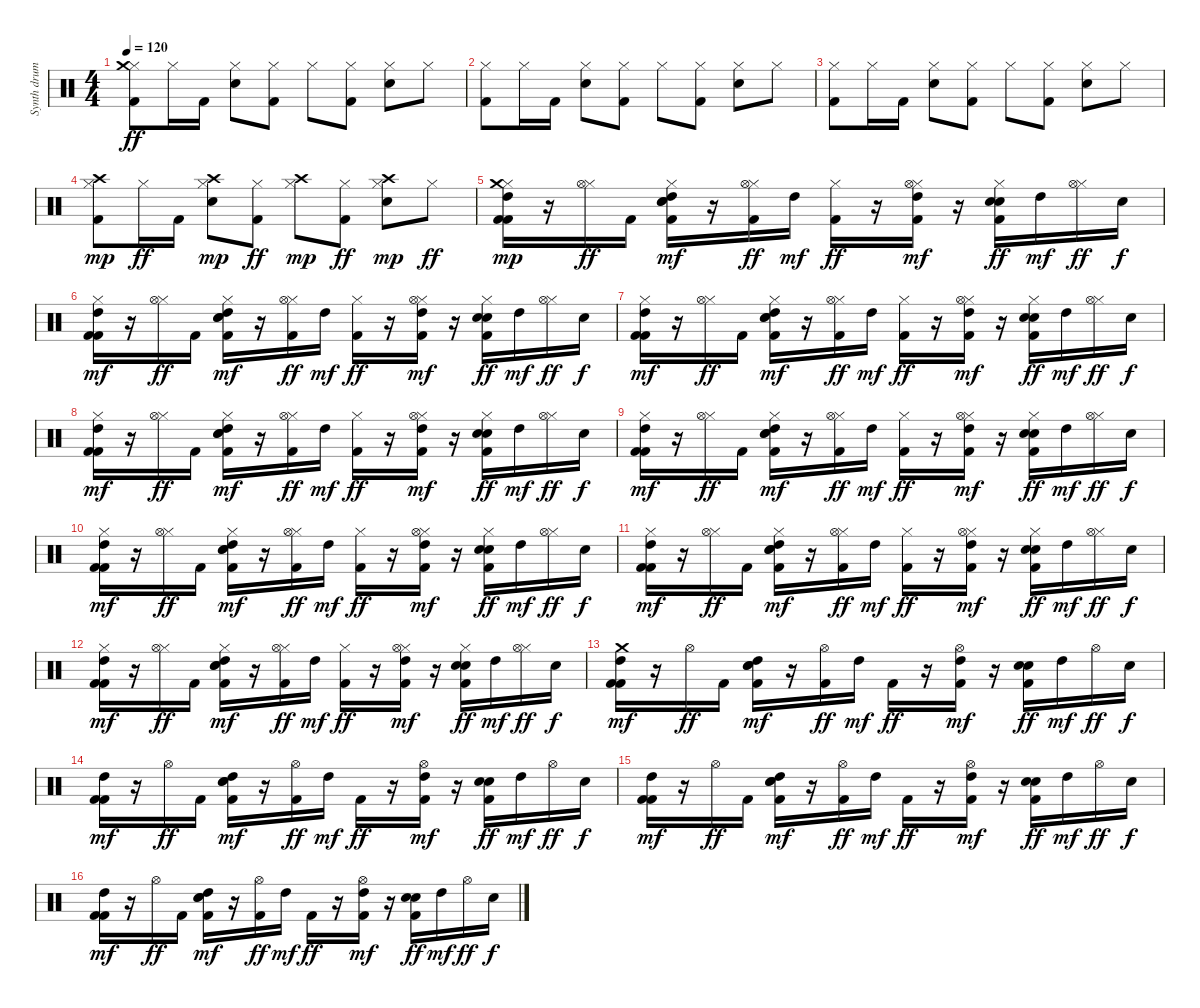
\track ("Synth drums" "Synth drum") {instrument percussion}
\staff {score}
\articulation defaults
\ts (4 4)
\tempo 120
\clef neutral
\ks c
("Kick (hit) 2" "Hi-Hat (closed)" "Crash medium (hit)").8{dy ff} "Hi-Hat (closed)".16 "Kick (hit) 2".16 ("Snare (hit) 2" "Hi-Hat (closed)").8 ("Kick (hit) 2" "Hi-Hat (closed)").8 "Hi-Hat (closed)".8 ("Kick (hit) 2" "Hi-Hat (closed)").8 ("Snare (hit) 2" "Hi-Hat (closed)").8 "Hi-Hat (closed)".8 |
("Kick (hit) 2" "Hi-Hat (closed)").8 "Hi-Hat (closed)".16 "Kick (hit) 2".16 ("Snare (hit) 2" "Hi-Hat (closed)").8 ("Kick (hit) 2" "Hi-Hat (closed)").8 "Hi-Hat (closed)".8 ("Kick (hit) 2" "Hi-Hat (closed)").8 ("Snare (hit) 2" "Hi-Hat (closed)").8 "Hi-Hat (closed)".8 |
("Kick (hit) 2" "Hi-Hat (closed)").8 "Hi-Hat (closed)".16 "Kick (hit) 2".16 ("Snare (hit) 2" "Hi-Hat (closed)").8 ("Kick (hit) 2" "Hi-Hat (closed)").8 "Hi-Hat (closed)".8 ("Kick (hit) 2" "Hi-Hat (closed)").8 ("Snare (hit) 2" "Hi-Hat (closed)").8 "Hi-Hat (closed)".8 |
("Kick (hit) 2" "Hi-Hat (closed)" "Crash high (hit)").8{dy mp} "Hi-Hat (closed)".16{dy ff} "Kick (hit) 2".16 ("Snare (hit) 2" "Hi-Hat (closed)" "Crash high (hit)").8{dy mp} ("Kick (hit) 2" "Hi-Hat (closed)").8{dy ff} ("Hi-Hat (closed)" "Crash high (hit)").8{dy mp} ("Kick (hit) 2" "Hi-Hat (closed)").8{dy ff} ("Snare (hit) 2" "Hi-Hat (closed)" "Crash high (hit)").8{dy mp} "Hi-Hat (closed)".8{dy ff} |
("Kick (hit) 2" "Hi-Hat (closed)" "Kick (hit) 2" "High Tom (hit)" "Crash medium (hit)").16{dy mp} r.16 ("Hi-Hat (closed)" "Hi-Hat (open)").16{dy ff} "Kick (hit) 2".16 ("Snare (hit) 2" "Hi-Hat (closed)" "Kick (hit) 2" "Snare (hit) 2" "High Tom (hit)").16{dy mf} r.16 ("Kick (hit) 2" "Hi-Hat (closed)" "Hi-Hat (open)").16{dy ff} "High Tom (hit)".16{dy mf} ("Hi-Hat (closed)" "Kick (hit) 2").16{dy ff} r.16 ("Kick (hit) 2" "Hi-Hat (closed)" "Hi-Hat (open)" "High Tom (hit)").16{dy mf} r.16 ("Snare (hit) 2" "Hi-Hat (closed)" "Kick (hit) 2" "Snare (hit) 2").16{dy ff} "High Tom (hit)".16{dy mf} ("Hi-Hat (closed)" "Hi-Hat (open)").16{dy ff} "Snare (hit) 2".16{dy f} |
("Kick (hit) 2" "Hi-Hat (closed)" "Kick (hit) 2" "High Tom (hit)").16{dy mf} r.16 ("Hi-Hat (closed)" "Hi-Hat (open)").16{dy ff} "Kick (hit) 2".16 ("Snare (hit) 2" "Hi-Hat (closed)" "Kick (hit) 2" "Snare (hit) 2" "High Tom (hit)").16{dy mf} r.16 ("Kick (hit) 2" "Hi-Hat (closed)" "Hi-Hat (open)").16{dy ff} "High Tom (hit)".16{dy mf} ("Hi-Hat (closed)" "Kick (hit) 2").16{dy ff} r.16 ("Kick (hit) 2" "Hi-Hat (closed)" "Hi-Hat (open)" "High Tom (hit)").16{dy mf} r.16 ("Snare (hit) 2" "Hi-Hat (closed)" "Kick (hit) 2" "Snare (hit) 2").16{dy ff} "High Tom (hit)".16{dy mf} ("Hi-Hat (closed)" "Hi-Hat (open)").16{dy ff} "Snare (hit) 2".16{dy f} |
("Kick (hit) 2" "Hi-Hat (closed)" "Kick (hit) 2" "High Tom (hit)").16{dy mf} r.16 ("Hi-Hat (closed)" "Hi-Hat (open)").16{dy ff} "Kick (hit) 2".16 ("Snare (hit) 2" "Hi-Hat (closed)" "Kick (hit) 2" "Snare (hit) 2" "High Tom (hit)").16{dy mf} r.16 ("Kick (hit) 2" "Hi-Hat (closed)" "Hi-Hat (open)").16{dy ff} "High Tom (hit)".16{dy mf} ("Hi-Hat (closed)" "Kick (hit) 2").16{dy ff} r.16 ("Kick (hit) 2" "Hi-Hat (closed)" "Hi-Hat (open)" "High Tom (hit)").16{dy mf} r.16 ("Snare (hit) 2" "Hi-Hat (closed)" "Kick (hit) 2" "Snare (hit) 2").16{dy ff} "High Tom (hit)".16{dy mf} ("Hi-Hat (closed)" "Hi-Hat (open)").16{dy ff} "Snare (hit) 2".16{dy f} |
("Kick (hit) 2" "Hi-Hat (closed)" "Kick (hit) 2" "High Tom (hit)").16{dy mf} r.16 ("Hi-Hat (closed)" "Hi-Hat (open)").16{dy ff} "Kick (hit) 2".16 ("Snare (hit) 2" "Hi-Hat (closed)" "Kick (hit) 2" "Snare (hit) 2" "High Tom (hit)").16{dy mf} r.16 ("Kick (hit) 2" "Hi-Hat (closed)" "Hi-Hat (open)").16{dy ff} "High Tom (hit)".16{dy mf} ("Hi-Hat (closed)" "Kick (hit) 2").16{dy ff} r.16 ("Kick (hit) 2" "Hi-Hat (closed)" "Hi-Hat (open)" "High Tom (hit)").16{dy mf} r.16 ("Snare (hit) 2" "Hi-Hat (closed)" "Kick (hit) 2" "Snare (hit) 2").16{dy ff} "High Tom (hit)".16{dy mf} ("Hi-Hat (closed)" "Hi-Hat (open)").16{dy ff} "Snare (hit) 2".16{dy f} |
("Kick (hit) 2" "Hi-Hat (closed)" "Kick (hit) 2" "High Tom (hit)").16{dy mf} r.16 ("Hi-Hat (closed)" "Hi-Hat (open)").16{dy ff} "Kick (hit) 2".16 ("Snare (hit) 2" "Hi-Hat (closed)" "Kick (hit) 2" "Snare (hit) 2" "High Tom (hit)").16{dy mf} r.16 ("Kick (hit) 2" "Hi-Hat (closed)" "Hi-Hat (open)").16{dy ff} "High Tom (hit)".16{dy mf} ("Hi-Hat (closed)" "Kick (hit) 2").16{dy ff} r.16 ("Kick (hit) 2" "Hi-Hat (closed)" "Hi-Hat (open)" "High Tom (hit)").16{dy mf} r.16 ("Snare (hit) 2" "Hi-Hat (closed)" "Kick (hit) 2" "Snare (hit) 2").16{dy ff} "High Tom (hit)".16{dy mf} ("Hi-Hat (closed)" "Hi-Hat (open)").16{dy ff} "Snare (hit) 2".16{dy f} |
("Kick (hit) 2" "Hi-Hat (closed)" "Kick (hit) 2" "High Tom (hit)").16{dy mf} r.16 ("Hi-Hat (closed)" "Hi-Hat (open)").16{dy ff} "Kick (hit) 2".16 ("Snare (hit) 2" "Hi-Hat (closed)" "Kick (hit) 2" "Snare (hit) 2" "High Tom (hit)").16{dy mf} r.16 ("Kick (hit) 2" "Hi-Hat (closed)" "Hi-Hat (open)").16{dy ff} "High Tom (hit)".16{dy mf} ("Hi-Hat (closed)" "Kick (hit) 2").16{dy ff} r.16 ("Kick (hit) 2" "Hi-Hat (closed)" "Hi-Hat (open)" "High Tom (hit)").16{dy mf} r.16 ("Snare (hit) 2" "Hi-Hat (closed)" "Kick (hit) 2" "Snare (hit) 2").16{dy ff} "High Tom (hit)".16{dy mf} ("Hi-Hat (closed)" "Hi-Hat (open)").16{dy ff} "Snare (hit) 2".16{dy f} |
("Kick (hit) 2" "Hi-Hat (closed)" "Kick (hit) 2" "High Tom (hit)").16{dy mf} r.16 ("Hi-Hat (closed)" "Hi-Hat (open)").16{dy ff} "Kick (hit) 2".16 ("Snare (hit) 2" "Hi-Hat (closed)" "Kick (hit) 2" "Snare (hit) 2" "High Tom (hit)").16{dy mf} r.16 ("Kick (hit) 2" "Hi-Hat (closed)" "Hi-Hat (open)").16{dy ff} "High Tom (hit)".16{dy mf} ("Hi-Hat (closed)" "Kick (hit) 2").16{dy ff} r.16 ("Kick (hit) 2" "Hi-Hat (closed)" "Hi-Hat (open)" "High Tom (hit)").16{dy mf} r.16 ("Snare (hit) 2" "Hi-Hat (closed)" "Kick (hit) 2" "Snare (hit) 2").16{dy ff} "High Tom (hit)".16{dy mf} ("Hi-Hat (closed)" "Hi-Hat (open)").16{dy ff} "Snare (hit) 2".16{dy f} |
("Kick (hit) 2" "Hi-Hat (closed)" "Kick (hit) 2" "High Tom (hit)").16{dy mf} r.16 ("Hi-Hat (closed)" "Hi-Hat (open)").16{dy ff} "Kick (hit) 2".16 ("Snare (hit) 2" "Hi-Hat (closed)" "Kick (hit) 2" "Snare (hit) 2" "High Tom (hit)").16{dy mf} r.16 ("Kick (hit) 2" "Hi-Hat (closed)" "Hi-Hat (open)").16{dy ff} "High Tom (hit)".16{dy mf} ("Hi-Hat (closed)" "Kick (hit) 2").16{dy ff} r.16 ("Kick (hit) 2" "Hi-Hat (closed)" "Hi-Hat (open)" "High Tom (hit)").16{dy mf} r.16 ("Snare (hit) 2" "Hi-Hat (closed)" "Kick (hit) 2" "Snare (hit) 2").16{dy ff} "High Tom (hit)".16{dy mf} ("Hi-Hat (closed)" "Hi-Hat (open)").16{dy ff} "Snare (hit) 2".16{dy f} |
("Kick (hit) 2" "Kick (hit) 2" "High Tom (hit)" "Crash medium (hit)").16{dy mf} r.16 "Hi-Hat (open)".16{dy ff} "Kick (hit) 2".16 ("Snare (hit) 2" "Kick (hit) 2" "Snare (hit) 2" "High Tom (hit)").16{dy mf} r.16 ("Kick (hit) 2" "Hi-Hat (open)").16{dy ff} "High Tom (hit)".16{dy mf} "Kick (hit) 2".16{dy ff} r.16 ("Kick (hit) 2" "Hi-Hat (open)" "High Tom (hit)").16{dy mf} r.16 ("Snare (hit) 2" "Kick (hit) 2" "Snare (hit) 2").16{dy ff} "High Tom (hit)".16{dy mf} "Hi-Hat (open)".16{dy ff} "Snare (hit) 2".16{dy f} |
("Kick (hit) 2" "Kick (hit) 2" "High Tom (hit)").16{dy mf} r.16 "Hi-Hat (open)".16{dy ff} "Kick (hit) 2".16 ("Snare (hit) 2" "Kick (hit) 2" "Snare (hit) 2" "High Tom (hit)").16{dy mf} r.16 ("Kick (hit) 2" "Hi-Hat (open)").16{dy ff} "High Tom (hit)".16{dy mf} "Kick (hit) 2".16{dy ff} r.16 ("Kick (hit) 2" "Hi-Hat (open)" "High Tom (hit)").16{dy mf} r.16 ("Snare (hit) 2" "Kick (hit) 2" "Snare (hit) 2").16{dy ff} "High Tom (hit)".16{dy mf} "Hi-Hat (open)".16{dy ff} "Snare (hit) 2".16{dy f} |
("Kick (hit) 2" "Kick (hit) 2" "High Tom (hit)").16{dy mf} r.16 "Hi-Hat (open)".16{dy ff} "Kick (hit) 2".16 ("Snare (hit) 2" "Kick (hit) 2" "Snare (hit) 2" "High Tom (hit)").16{dy mf} r.16 ("Kick (hit) 2" "Hi-Hat (open)").16{dy ff} "High Tom (hit)".16{dy mf} "Kick (hit) 2".16{dy ff} r.16 ("Kick (hit) 2" "Hi-Hat (open)" "High Tom (hit)").16{dy mf} r.16 ("Snare (hit) 2" "Kick (hit) 2" "Snare (hit) 2").16{dy ff} "High Tom (hit)".16{dy mf} "Hi-Hat (open)".16{dy ff} "Snare (hit) 2".16{dy f} |
("Kick (hit) 2" "Kick (hit) 2" "High Tom (hit)").16{dy mf} r.16 "Hi-Hat (open)".16{dy ff} "Kick (hit) 2".16 ("Snare (hit) 2" "Kick (hit) 2" "Snare (hit) 2" "High Tom (hit)").16{dy mf} r.16 ("Kick (hit) 2" "Hi-Hat (open)").16{dy ff} "High Tom (hit)".16{dy mf} "Kick (hit) 2".16{dy ff} r.16 ("Kick (hit) 2" "Hi-Hat (open)" "High Tom (hit)").16{dy mf} r.16 ("Snare (hit) 2" "Kick (hit) 2" "Snare (hit) 2").16{dy ff} "High Tom (hit)".16{dy mf} "Hi-Hat (open)".16{dy ff} "Snare (hit) 2".16{dy f}
